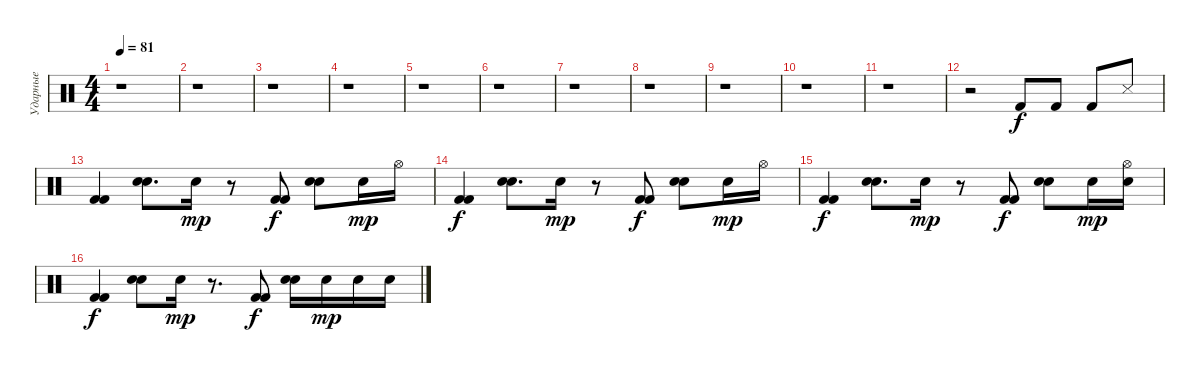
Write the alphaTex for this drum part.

\track ("Ударные" "Ударные") {instrument percussion}
\staff {score}
\articulation defaults
\ts (4 4)
\tempo 81
\clef neutral
\ks c
r.1{dy f} |
r.1 |
r.1 |
r.1 |
r.1 |
r.1 |
r.1 |
r.1 |
r.1 |
r.1 |
r.1 |
r.2 "Kick (hit) 2".8 "Kick (hit) 2".8 "Kick (hit) 2".8 "Snare (side stick) 3".8 |
("Kick (hit) 2" "Kick (hit) 2").4 ("Snare (hit) 2" "Snare (hit) 2").8{d} "Electric Snare (hit)".16{dy mp} r.8 ("Kick (hit) 2" "Kick (hit) 2").8{dy f} ("Snare (hit) 2" "Snare (hit) 2").8 "Electric Snare (hit)".16{dy mp} "Hi-Hat (open)".16 |
("Kick (hit) 2" "Kick (hit) 2").4{dy f} ("Snare (hit) 2" "Snare (hit) 2").8{d} "Electric Snare (hit)".16{dy mp} r.8 ("Kick (hit) 2" "Kick (hit) 2").8{dy f} ("Snare (hit) 2" "Snare (hit) 2").8 "Electric Snare (hit)".16{dy mp} "Hi-Hat (open)".16 |
("Kick (hit) 2" "Kick (hit) 2").4{dy f} ("Snare (hit) 2" "Snare (hit) 2").8{d} "Electric Snare (hit)".16{dy mp} r.8 ("Kick (hit) 2" "Kick (hit) 2").8{dy f} ("Snare (hit) 2" "Snare (hit) 2").8 "Electric Snare (hit)".16{dy mp} ("Hi-Hat (open)" "Electric Snare (hit)").16 |
("Kick (hit) 2" "Kick (hit) 2").4{dy f} ("Snare (hit) 2" "Snare (hit) 2").8 "Electric Snare (hit)".16{dy mp} r.8{d} ("Kick (hit) 2" "Kick (hit) 2").8{dy f} ("Snare (hit) 2" "Snare (hit) 2").16 "Electric Snare (hit)".16{dy mp} "Electric Snare (hit)".16 "Electric Snare (hit)".16
